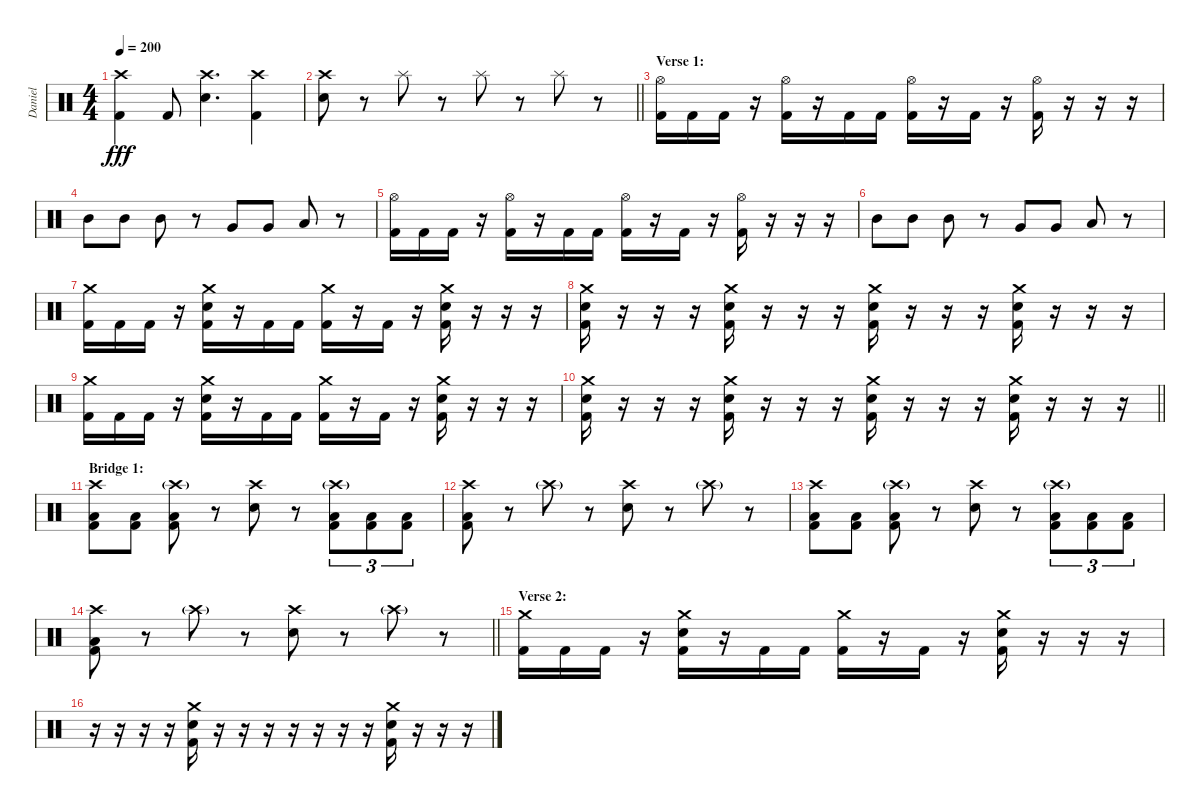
\track ("Daniel" "Daniel") {instrument percussion}
\staff {score}
\articulation defaults
\ts (4 4)
\tempo 200
\clef neutral
\ks c
("Crash high (hit)" "Kick (hit) 2").4{dy fff} "Kick (hit) 2".8 ("Crash high (hit)" "Electric Snare (hit)").4{d} ("Crash high (hit)" "Kick (hit) 2").4 |
\barLineRight lightlight
("Crash high (hit)" "Electric Snare (hit)").8 r.8 "Splash (hit)".8 r.8 "Splash (hit)".8 r.8 "Splash (hit)".8 r.8 |
\section ("" "Verse 1:")
("Hi-Hat (open)" "Kick (hit) 2").16 "Kick (hit) 2".16 "Kick (hit) 2".16 r.16 ("Hi-Hat (open)" "Kick (hit) 2").16 r.16 "Kick (hit) 2".16 "Kick (hit) 2".16 ("Hi-Hat (open)" "Kick (hit) 2").16 r.16 "Kick (hit) 2".16 r.16 ("Hi-Hat (open)" "Kick (hit) 2").16 r.16 r.16 r.16 |
"Mid Tom (hit)".8 "Mid Tom (hit)".8 "Mid Tom (hit)".8 r.8 "Very Low Tom (hit)".8 "Very Low Tom (hit)".8 "Low Floor Tom (hit)".8 r.8 |
("Hi-Hat (open)" "Kick (hit) 2").16 "Kick (hit) 2".16 "Kick (hit) 2".16 r.16 ("Hi-Hat (open)" "Kick (hit) 2").16 r.16 "Kick (hit) 2".16 "Kick (hit) 2".16 ("Hi-Hat (open)" "Kick (hit) 2").16 r.16 "Kick (hit) 2".16 r.16 ("Hi-Hat (open)" "Kick (hit) 2").16 r.16 r.16 r.16 |
"Mid Tom (hit)".8 "Mid Tom (hit)".8 "Mid Tom (hit)".8 r.8 "Very Low Tom (hit)".8 "Very Low Tom (hit)".8 "Low Floor Tom (hit)".8 r.8 |
("Crash medium (hit)" "Kick (hit) 2").16 "Kick (hit) 2".16 "Kick (hit) 2".16 r.16 ("Crash medium (hit)" "Electric Snare (hit)" "Kick (hit) 2").16 r.16 "Kick (hit) 2".16 "Kick (hit) 2".16 ("Crash medium (hit)" "Kick (hit) 2").16 r.16 "Kick (hit) 2".16 r.16 ("Crash medium (hit)" "Electric Snare (hit)" "Kick (hit) 2").16 r.16 r.16 r.16 |
("Crash medium (hit)" "Electric Snare (hit)" "Kick (hit) 2").16 r.16 r.16 r.16 ("Crash medium (hit)" "Electric Snare (hit)" "Kick (hit) 2").16 r.16 r.16 r.16 ("Crash medium (hit)" "Electric Snare (hit)" "Kick (hit) 2").16 r.16 r.16 r.16 ("Crash medium (hit)" "Electric Snare (hit)" "Kick (hit) 2").16 r.16 r.16 r.16 |
("Crash medium (hit)" "Kick (hit) 2").16 "Kick (hit) 2".16 "Kick (hit) 2".16 r.16 ("Crash medium (hit)" "Electric Snare (hit)" "Kick (hit) 2").16 r.16 "Kick (hit) 2".16 "Kick (hit) 2".16 ("Crash medium (hit)" "Kick (hit) 2").16 r.16 "Kick (hit) 2".16 r.16 ("Crash medium (hit)" "Electric Snare (hit)" "Kick (hit) 2").16 r.16 r.16 r.16 |
\barLineRight lightlight
("Crash medium (hit)" "Electric Snare (hit)" "Kick (hit) 2").16 r.16 r.16 r.16 ("Crash medium (hit)" "Electric Snare (hit)" "Kick (hit) 2").16 r.16 r.16 r.16 ("Crash medium (hit)" "Electric Snare (hit)" "Kick (hit) 2").16 r.16 r.16 r.16 ("Crash medium (hit)" "Electric Snare (hit)" "Kick (hit) 2").16 r.16 r.16 r.16 |
\section ("" "Bridge 1:")
("Crash high (hit)" "Low Floor Tom (hit)" "Kick (hit) 2").8 ("Low Floor Tom (hit)" "Kick (hit) 2").8 ("Crash high (hit)"{g} "Low Floor Tom (hit)" "Kick (hit) 2").8 r.8 ("Crash high (hit)" "Electric Snare (hit)").8 r.8 ("Crash high (hit)"{g} "Low Floor Tom (hit)" "Kick (hit) 2").8{tu (3 2)} ("Low Floor Tom (hit)" "Kick (hit) 2").8{tu (3 2)} ("Low Floor Tom (hit)" "Kick (hit) 2").8{tu (3 2)} |
("Crash high (hit)" "Low Floor Tom (hit)" "Kick (hit) 2").8 r.8 "Crash high (hit)"{g}.8 r.8 ("Crash high (hit)" "Electric Snare (hit)").8 r.8 "Crash high (hit)"{g}.8 r.8 |
("Crash high (hit)" "Low Floor Tom (hit)" "Kick (hit) 2").8 ("Low Floor Tom (hit)" "Kick (hit) 2").8 ("Crash high (hit)"{g} "Low Floor Tom (hit)" "Kick (hit) 2").8 r.8 ("Crash high (hit)" "Electric Snare (hit)").8 r.8 ("Crash high (hit)"{g} "Low Floor Tom (hit)" "Kick (hit) 2").8{tu (3 2)} ("Low Floor Tom (hit)" "Kick (hit) 2").8{tu (3 2)} ("Low Floor Tom (hit)" "Kick (hit) 2").8{tu (3 2)} |
\barLineRight lightlight
("Crash high (hit)" "Low Floor Tom (hit)" "Kick (hit) 2").8 r.8 "Crash high (hit)"{g}.8 r.8 ("Crash high (hit)" "Electric Snare (hit)").8 r.8 "Crash high (hit)"{g}.8 r.8 |
\section ("" "Verse 2:")
("Crash medium (hit)" "Kick (hit) 2").16 "Kick (hit) 2".16 "Kick (hit) 2".16 r.16 ("Crash medium (hit)" "Electric Snare (hit)" "Kick (hit) 2").16 r.16 "Kick (hit) 2".16 "Kick (hit) 2".16 ("Crash medium (hit)" "Kick (hit) 2").16 r.16 "Kick (hit) 2".16 r.16 ("Crash medium (hit)" "Electric Snare (hit)" "Kick (hit) 2").16 r.16 r.16 r.16 |
r.16 r.16 r.16 r.16 ("Crash medium (hit)" "Electric Snare (hit)" "Kick (hit) 2").16 r.16 r.16 r.16 r.16 r.16 r.16 r.16 ("Crash medium (hit)" "Electric Snare (hit)" "Kick (hit) 2").16 r.16 r.16 r.16
